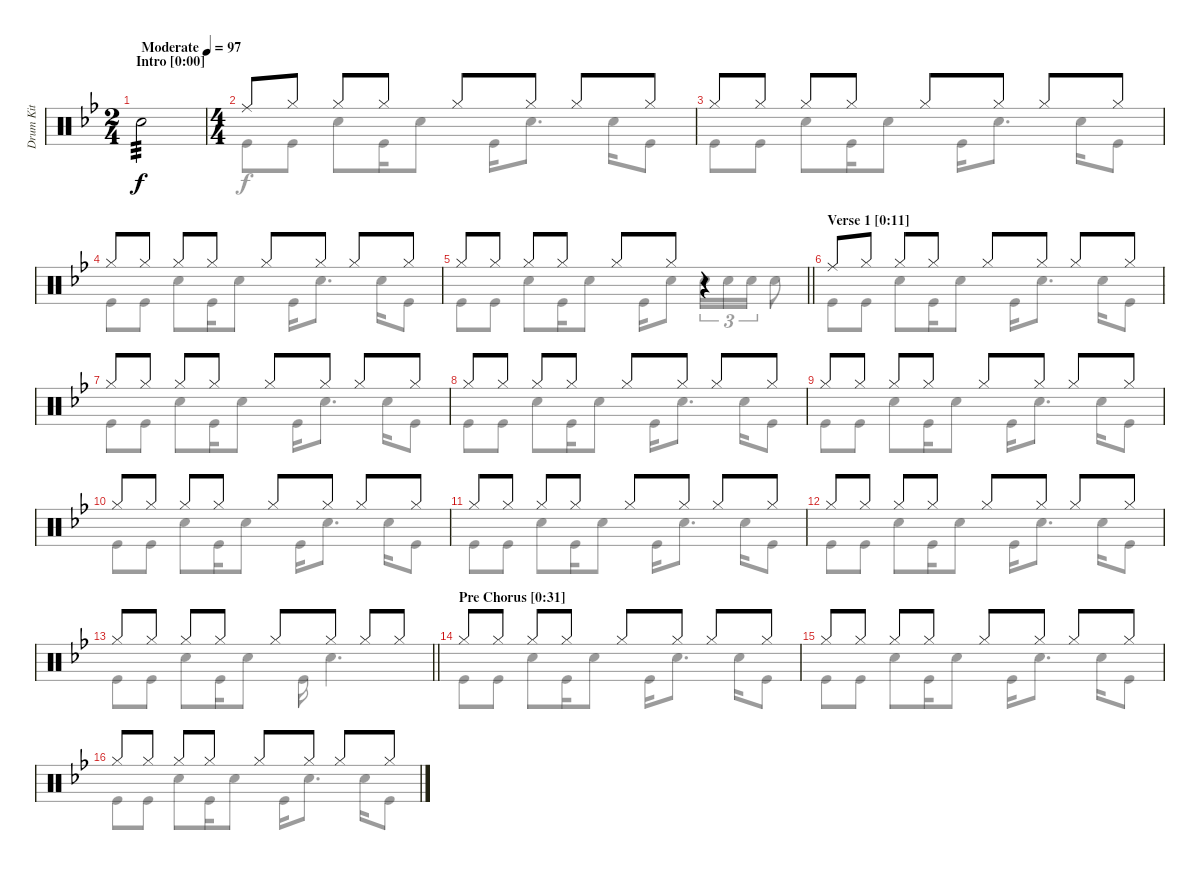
\track ("Drum Kit" "Drum Kit") {instrument percussion}
\staff {score}
\articulation defaults
\voice
\ts (2 4)
\section ("" "Intro [0:00]")
\tempo (97 "Moderate")
\clef neutral
\ks gminor "Snare (hit) 2".2{tp 3 dy f}
|
\ts (4 4)
"Ride (middle)".8 "Hi-Hat (closed)".8 "Hi-Hat (closed)".8 "Hi-Hat (closed)".8 "Hi-Hat (closed)".8 "Hi-Hat (closed)".8 "Hi-Hat (closed)".8 "Hi-Hat (closed)".8 |
"Hi-Hat (closed)".8 "Hi-Hat (closed)".8 "Hi-Hat (closed)".8 "Hi-Hat (closed)".8 "Hi-Hat (closed)".8 "Hi-Hat (closed)".8 "Hi-Hat (closed)".8 "Hi-Hat (closed)".8 |
"Hi-Hat (closed)".8 "Hi-Hat (closed)".8 "Hi-Hat (closed)".8 "Hi-Hat (closed)".8 "Hi-Hat (closed)".8 "Hi-Hat (closed)".8 "Hi-Hat (closed)".8 "Hi-Hat (closed)".8 |
\barLineRight lightlight "Hi-Hat (closed)".8 "Hi-Hat (closed)".8 "Hi-Hat (closed)".8 "Hi-Hat (closed)".8 "Hi-Hat (closed)".8 "Hi-Hat (closed)".8
r.4 |
\section ("" "Verse 1 [0:11]")
"Ride (middle)".8 "Hi-Hat (closed)".8 "Hi-Hat (closed)".8 "Hi-Hat (closed)".8 "Hi-Hat (closed)".8 "Hi-Hat (closed)".8 "Hi-Hat (closed)".8 "Hi-Hat (closed)".8 |
"Hi-Hat (closed)".8 "Hi-Hat (closed)".8 "Hi-Hat (closed)".8 "Hi-Hat (closed)".8 "Hi-Hat (closed)".8 "Hi-Hat (closed)".8 "Hi-Hat (closed)".8 "Hi-Hat (closed)".8 |
"Hi-Hat (closed)".8 "Hi-Hat (closed)".8 "Hi-Hat (closed)".8 "Hi-Hat (closed)".8 "Hi-Hat (closed)".8 "Hi-Hat (closed)".8 "Hi-Hat (closed)".8 "Hi-Hat (closed)".8 |
"Hi-Hat (closed)".8 "Hi-Hat (closed)".8 "Hi-Hat (closed)".8 "Hi-Hat (closed)".8 "Hi-Hat (closed)".8 "Hi-Hat (closed)".8 "Hi-Hat (closed)".8 "Hi-Hat (closed)".8 |
"Hi-Hat (closed)".8 "Hi-Hat (closed)".8 "Hi-Hat (closed)".8 "Hi-Hat (closed)".8 "Hi-Hat (closed)".8 "Hi-Hat (closed)".8 "Hi-Hat (closed)".8 "Hi-Hat (closed)".8 |
"Hi-Hat (closed)".8 "Hi-Hat (closed)".8 "Hi-Hat (closed)".8 "Hi-Hat (closed)".8 "Hi-Hat (closed)".8 "Hi-Hat (closed)".8 "Hi-Hat (closed)".8 "Hi-Hat (closed)".8 |
"Hi-Hat (closed)".8 "Hi-Hat (closed)".8 "Hi-Hat (closed)".8 "Hi-Hat (closed)".8 "Hi-Hat (closed)".8 "Hi-Hat (closed)".8 "Hi-Hat (closed)".8 "Hi-Hat (closed)".8 |
\barLineRight lightlight "Hi-Hat (closed)".8 "Hi-Hat (closed)".8 "Hi-Hat (closed)".8 "Hi-Hat (closed)".8 "Hi-Hat (closed)".8 "Hi-Hat (closed)".8 "Hi-Hat (closed)".8 "Hi-Hat (closed)".8
|
\section ("" "Pre Chorus [0:31]")
"Hi-Hat (closed)".8 "Hi-Hat (closed)".8 "Hi-Hat (closed)".8 "Hi-Hat (closed)".8 "Hi-Hat (closed)".8 "Hi-Hat (closed)".8 "Hi-Hat (closed)".8 "Hi-Hat (closed)".8 |
"Hi-Hat (closed)".8 "Hi-Hat (closed)".8 "Hi-Hat (closed)".8 "Hi-Hat (closed)".8 "Hi-Hat (closed)".8 "Hi-Hat (closed)".8 "Hi-Hat (closed)".8 "Hi-Hat (closed)".8 |
"Hi-Hat (closed)".8 "Hi-Hat (closed)".8 "Hi-Hat (closed)".8 "Hi-Hat (closed)".8 "Hi-Hat (closed)".8 "Hi-Hat (closed)".8 "Hi-Hat (closed)".8 "Hi-Hat (closed)".8
\voice
\clef neutral
\ottava regular
\simile none
\ks gminor
|
"Kick (hit)".8 "Kick (hit)".8 "Snare (hit) 2".8 "Kick (hit)".16 "Snare (hit) 2".8 "Kick (hit)".16 "Snare (hit) 2".8{d} "Snare (hit) 2".16 "Kick (hit)".8 |
"Kick (hit)".8 "Kick (hit)".8 "Snare (hit) 2".8 "Kick (hit)".16 "Snare (hit) 2".8 "Kick (hit)".16 "Snare (hit) 2".8{d} "Snare (hit) 2".16 "Kick (hit)".8 |
"Kick (hit)".8 "Kick (hit)".8 "Snare (hit) 2".8 "Kick (hit)".16 "Snare (hit) 2".8 "Kick (hit)".16 "Snare (hit) 2".8{d} "Snare (hit) 2".16 "Kick (hit)".8 |
\barLineRight lightlight "Kick (hit)".8 "Kick (hit)".8 "Snare (hit) 2".8 "Kick (hit)".16 "Snare (hit) 2".8 "Kick (hit)".16 "Snare (hit) 2".8 "Snare (hit) 2".16{tu (3 2)} "Snare (hit) 2".16{tu (3 2)} "Snare (hit) 2".16{tu (3 2)} "Snare (hit) 2".8
|
"Kick (hit)".8 "Kick (hit)".8 "Snare (hit) 2".8 "Kick (hit)".16 "Snare (hit) 2".8 "Kick (hit)".16 "Snare (hit) 2".8{d} "Snare (hit) 2".16 "Kick (hit)".8 |
"Kick (hit)".8 "Kick (hit)".8 "Snare (hit) 2".8 "Kick (hit)".16 "Snare (hit) 2".8 "Kick (hit)".16 "Snare (hit) 2".8{d} "Snare (hit) 2".16 "Kick (hit)".8 |
"Kick (hit)".8 "Kick (hit)".8 "Snare (hit) 2".8 "Kick (hit)".16 "Snare (hit) 2".8 "Kick (hit)".16 "Snare (hit) 2".8{d} "Snare (hit) 2".16 "Kick (hit)".8 |
"Kick (hit)".8 "Kick (hit)".8 "Snare (hit) 2".8 "Kick (hit)".16 "Snare (hit) 2".8 "Kick (hit)".16 "Snare (hit) 2".8{d} "Snare (hit) 2".16 "Kick (hit)".8 |
"Kick (hit)".8 "Kick (hit)".8 "Snare (hit) 2".8 "Kick (hit)".16 "Snare (hit) 2".8 "Kick (hit)".16 "Snare (hit) 2".8{d} "Snare (hit) 2".16 "Kick (hit)".8 |
"Kick (hit)".8 "Kick (hit)".8 "Snare (hit) 2".8 "Kick (hit)".16 "Snare (hit) 2".8 "Kick (hit)".16 "Snare (hit) 2".8{d} "Snare (hit) 2".16 "Kick (hit)".8 |
"Kick (hit)".8 "Kick (hit)".8 "Snare (hit) 2".8 "Kick (hit)".16 "Snare (hit) 2".8 "Kick (hit)".16 "Snare (hit) 2".8{d} "Snare (hit) 2".16 "Kick (hit)".8 |
\barLineRight lightlight "Kick (hit)".8 "Kick (hit)".8 "Snare (hit) 2".8 "Kick (hit)".16 "Snare (hit) 2".8 "Kick (hit)".16 "Snare (hit) 2".4{d}
|
"Kick (hit)".8 "Kick (hit)".8 "Snare (hit) 2".8 "Kick (hit)".16 "Snare (hit) 2".8 "Kick (hit)".16 "Snare (hit) 2".8{d} "Snare (hit) 2".16 "Kick (hit)".8 |
"Kick (hit)".8 "Kick (hit)".8 "Snare (hit) 2".8 "Kick (hit)".16 "Snare (hit) 2".8 "Kick (hit)".16 "Snare (hit) 2".8{d} "Snare (hit) 2".16 "Kick (hit)".8 |
"Kick (hit)".8 "Kick (hit)".8 "Snare (hit) 2".8 "Kick (hit)".16 "Snare (hit) 2".8 "Kick (hit)".16 "Snare (hit) 2".8{d} "Snare (hit) 2".16 "Kick (hit)".8
